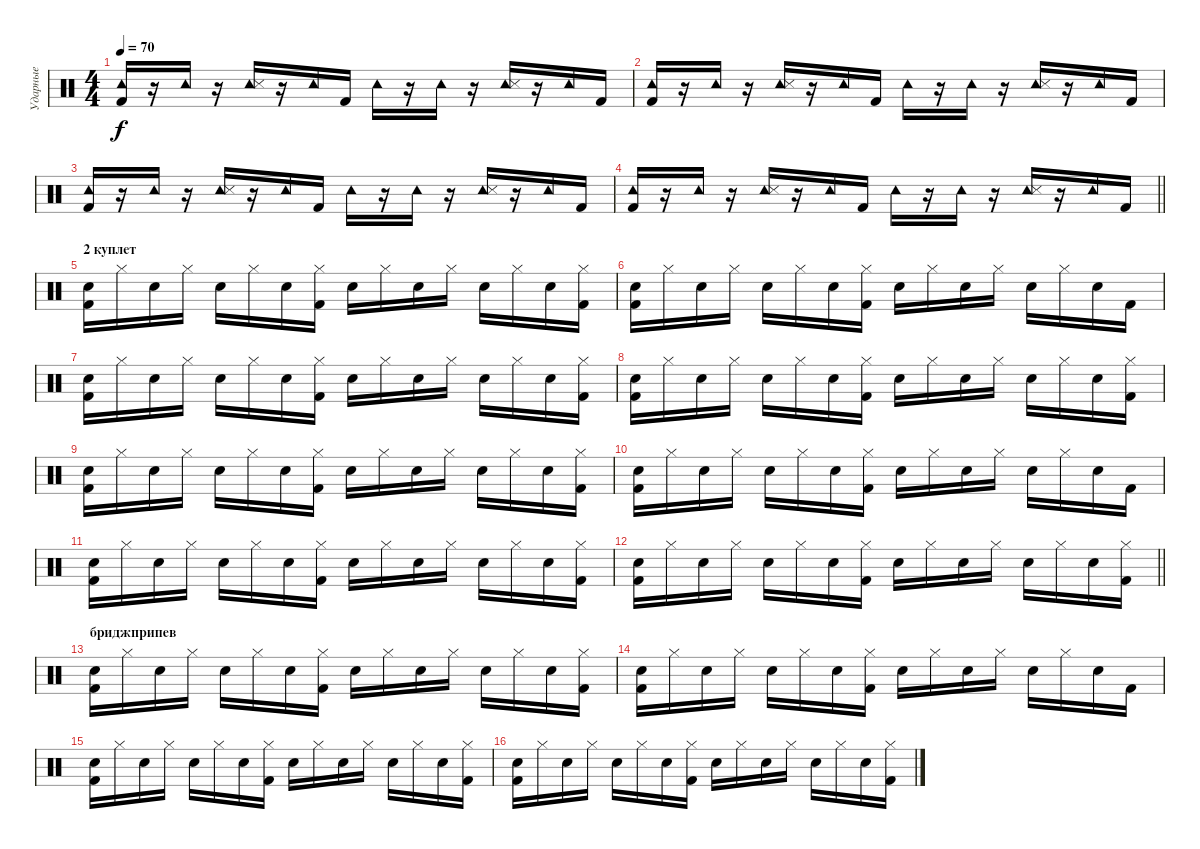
\track ("Ударные" "Ударные") {instrument percussion}
\staff {score}
\articulation defaults
\ts (4 4)
\tempo 70
\clef neutral
\ks c
("Tambourine (hit)" "Kick (hit) 2").16{dy f} r.16 "Tambourine (hit)".16 r.16 ("Tambourine (hit)" "Snare (side stick) 3").16 r.16 "Tambourine (hit)".16 "Kick (hit) 2".16 "Tambourine (hit)".16 r.16 "Tambourine (hit)".16 r.16 ("Tambourine (hit)" "Snare (side stick) 3").16 r.16 "Tambourine (hit)".16 "Kick (hit) 2".16 |
("Tambourine (hit)" "Kick (hit) 2").16 r.16 "Tambourine (hit)".16 r.16 ("Tambourine (hit)" "Snare (side stick) 3").16 r.16 "Tambourine (hit)".16 "Kick (hit) 2".16 "Tambourine (hit)".16 r.16 "Tambourine (hit)".16 r.16 ("Tambourine (hit)" "Snare (side stick) 3").16 r.16 "Tambourine (hit)".16 "Kick (hit) 2".16 |
("Tambourine (hit)" "Kick (hit) 2").16 r.16 "Tambourine (hit)".16 r.16 ("Tambourine (hit)" "Snare (side stick) 3").16 r.16 "Tambourine (hit)".16 "Kick (hit) 2".16 "Tambourine (hit)".16 r.16 "Tambourine (hit)".16 r.16 ("Tambourine (hit)" "Snare (side stick) 3").16 r.16 "Tambourine (hit)".16 "Kick (hit) 2".16 |
\barLineRight lightlight
("Tambourine (hit)" "Kick (hit) 2").16 r.16 "Tambourine (hit)".16 r.16 ("Tambourine (hit)" "Snare (side stick) 3").16 r.16 "Tambourine (hit)".16 "Kick (hit) 2".16 "Tambourine (hit)".16 r.16 "Tambourine (hit)".16 r.16 ("Tambourine (hit)" "Snare (side stick) 3").16 r.16 "Tambourine (hit)".16 "Kick (hit) 2".16 |
\section ("" "2 куплет")
("Snare (hit) 2" "Kick (hit) 2").16 "Hi-Hat (closed)".16 "Snare (hit) 2".16 "Hi-Hat (closed)".16 "Snare (hit) 2".16 "Hi-Hat (closed)".16 "Snare (hit) 2".16 ("Hi-Hat (closed)" "Kick (hit) 2").16 "Snare (hit) 2".16 "Hi-Hat (closed)".16 "Snare (hit) 2".16 "Hi-Hat (closed)".16 "Snare (hit) 2".16 "Hi-Hat (closed)".16 "Snare (hit) 2".16 ("Hi-Hat (closed)" "Kick (hit) 2").16 |
("Snare (hit) 2" "Kick (hit) 2").16 "Hi-Hat (closed)".16 "Snare (hit) 2".16 "Hi-Hat (closed)".16 "Snare (hit) 2".16 "Hi-Hat (closed)".16 "Snare (hit) 2".16 ("Hi-Hat (closed)" "Kick (hit) 2").16 "Snare (hit) 2".16 "Hi-Hat (closed)".16 "Snare (hit) 2".16 "Hi-Hat (closed)".16 "Snare (hit) 2".16 "Hi-Hat (closed)".16 "Snare (hit) 2".16 "Kick (hit) 2".16 |
("Snare (hit) 2" "Kick (hit) 2").16 "Hi-Hat (closed)".16 "Snare (hit) 2".16 "Hi-Hat (closed)".16 "Snare (hit) 2".16 "Hi-Hat (closed)".16 "Snare (hit) 2".16 ("Hi-Hat (closed)" "Kick (hit) 2").16 "Snare (hit) 2".16 "Hi-Hat (closed)".16 "Snare (hit) 2".16 "Hi-Hat (closed)".16 "Snare (hit) 2".16 "Hi-Hat (closed)".16 "Snare (hit) 2".16 ("Hi-Hat (closed)" "Kick (hit) 2").16 |
("Snare (hit) 2" "Kick (hit) 2").16 "Hi-Hat (closed)".16 "Snare (hit) 2".16 "Hi-Hat (closed)".16 "Snare (hit) 2".16 "Hi-Hat (closed)".16 "Snare (hit) 2".16 ("Hi-Hat (closed)" "Kick (hit) 2").16 "Snare (hit) 2".16 "Hi-Hat (closed)".16 "Snare (hit) 2".16 "Hi-Hat (closed)".16 "Snare (hit) 2".16 "Hi-Hat (closed)".16 "Snare (hit) 2".16 ("Hi-Hat (closed)" "Kick (hit) 2").16 |
("Snare (hit) 2" "Kick (hit) 2").16 "Hi-Hat (closed)".16 "Snare (hit) 2".16 "Hi-Hat (closed)".16 "Snare (hit) 2".16 "Hi-Hat (closed)".16 "Snare (hit) 2".16 ("Hi-Hat (closed)" "Kick (hit) 2").16 "Snare (hit) 2".16 "Hi-Hat (closed)".16 "Snare (hit) 2".16 "Hi-Hat (closed)".16 "Snare (hit) 2".16 "Hi-Hat (closed)".16 "Snare (hit) 2".16 ("Hi-Hat (closed)" "Kick (hit) 2").16 |
("Snare (hit) 2" "Kick (hit) 2").16 "Hi-Hat (closed)".16 "Snare (hit) 2".16 "Hi-Hat (closed)".16 "Snare (hit) 2".16 "Hi-Hat (closed)".16 "Snare (hit) 2".16 ("Hi-Hat (closed)" "Kick (hit) 2").16 "Snare (hit) 2".16 "Hi-Hat (closed)".16 "Snare (hit) 2".16 "Hi-Hat (closed)".16 "Snare (hit) 2".16 "Hi-Hat (closed)".16 "Snare (hit) 2".16 "Kick (hit) 2".16 |
("Snare (hit) 2" "Kick (hit) 2").16 "Hi-Hat (closed)".16 "Snare (hit) 2".16 "Hi-Hat (closed)".16 "Snare (hit) 2".16 "Hi-Hat (closed)".16 "Snare (hit) 2".16 ("Hi-Hat (closed)" "Kick (hit) 2").16 "Snare (hit) 2".16 "Hi-Hat (closed)".16 "Snare (hit) 2".16 "Hi-Hat (closed)".16 "Snare (hit) 2".16 "Hi-Hat (closed)".16 "Snare (hit) 2".16 ("Hi-Hat (closed)" "Kick (hit) 2").16 |
\barLineRight lightlight
("Snare (hit) 2" "Kick (hit) 2").16 "Hi-Hat (closed)".16 "Snare (hit) 2".16 "Hi-Hat (closed)".16 "Snare (hit) 2".16 "Hi-Hat (closed)".16 "Snare (hit) 2".16 ("Hi-Hat (closed)" "Kick (hit) 2").16 "Snare (hit) 2".16 "Hi-Hat (closed)".16 "Snare (hit) 2".16 "Hi-Hat (closed)".16 "Snare (hit) 2".16 "Hi-Hat (closed)".16 "Snare (hit) 2".16 ("Hi-Hat (closed)" "Kick (hit) 2").16 |
\section ("" "бриджприпев")
("Snare (hit) 2" "Kick (hit) 2").16 "Hi-Hat (closed)".16 "Snare (hit) 2".16 "Hi-Hat (closed)".16 "Snare (hit) 2".16 "Hi-Hat (closed)".16 "Snare (hit) 2".16 ("Hi-Hat (closed)" "Kick (hit) 2").16 "Snare (hit) 2".16 "Hi-Hat (closed)".16 "Snare (hit) 2".16 "Hi-Hat (closed)".16 "Snare (hit) 2".16 "Hi-Hat (closed)".16 "Snare (hit) 2".16 ("Hi-Hat (closed)" "Kick (hit) 2").16 |
("Snare (hit) 2" "Kick (hit) 2").16 "Hi-Hat (closed)".16 "Snare (hit) 2".16 "Hi-Hat (closed)".16 "Snare (hit) 2".16 "Hi-Hat (closed)".16 "Snare (hit) 2".16 ("Hi-Hat (closed)" "Kick (hit) 2").16 "Snare (hit) 2".16 "Hi-Hat (closed)".16 "Snare (hit) 2".16 "Hi-Hat (closed)".16 "Snare (hit) 2".16 "Hi-Hat (closed)".16 "Snare (hit) 2".16 "Kick (hit) 2".16 |
("Snare (hit) 2" "Kick (hit) 2").16 "Hi-Hat (closed)".16 "Snare (hit) 2".16 "Hi-Hat (closed)".16 "Snare (hit) 2".16 "Hi-Hat (closed)".16 "Snare (hit) 2".16 ("Hi-Hat (closed)" "Kick (hit) 2").16 "Snare (hit) 2".16 "Hi-Hat (closed)".16 "Snare (hit) 2".16 "Hi-Hat (closed)".16 "Snare (hit) 2".16 "Hi-Hat (closed)".16 "Snare (hit) 2".16 ("Hi-Hat (closed)" "Kick (hit) 2").16 |
("Snare (hit) 2" "Kick (hit) 2").16 "Hi-Hat (closed)".16 "Snare (hit) 2".16 "Hi-Hat (closed)".16 "Snare (hit) 2".16 "Hi-Hat (closed)".16 "Snare (hit) 2".16 ("Hi-Hat (closed)" "Kick (hit) 2").16 "Snare (hit) 2".16 "Hi-Hat (closed)".16 "Snare (hit) 2".16 "Hi-Hat (closed)".16 "Snare (hit) 2".16 "Hi-Hat (closed)".16 "Snare (hit) 2".16 ("Hi-Hat (closed)" "Kick (hit) 2").16
